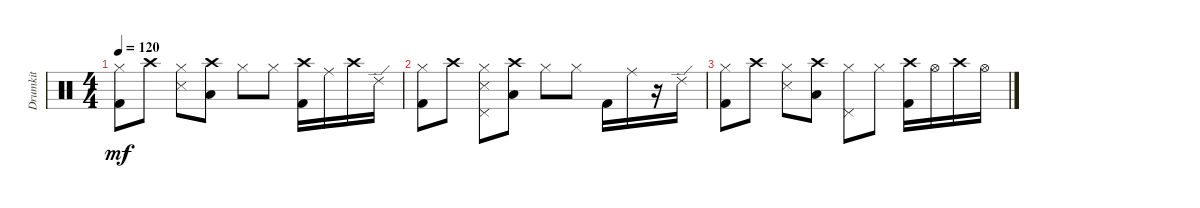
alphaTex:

\track ("Drumkit" "Drumkit") {instrument percussion}
\staff {score}
\articulation defaults
\ts (4 4)
\tempo 120
\clef neutral
\ks c
("Hi-Hat (closed)" "Kick (hit) 2").8{dy mf} "Crash high (hit)".8 ("Hi-Hat (closed)" "Snare (side stick) 3").8 ("Crash high (hit)" "Low Floor Tom (hit)").8 "Hi-Hat (closed)".8 "Hi-Hat (closed)".8 ("Crash high (hit)" "Kick (hit) 2").16 "Ride (middle)".16 "Crash high (hit)".16 "Ride (edge) 2".16 |
("Hi-Hat (closed)" "Kick (hit) 2").8 "Crash high (hit)".8 ("Hi-Hat (closed)" "Snare (side stick) 3" "Pedal Hi-Hat (hit)").8 ("Crash high (hit)" "Low Floor Tom (hit)").8 "Hi-Hat (closed)".8 "Hi-Hat (closed)".8 "Kick (hit) 2".16 "Ride (middle)".16 r.16 "Ride (edge) 2".16 |
("Hi-Hat (closed)" "Kick (hit) 2").8 "Crash high (hit)".8 ("Hi-Hat (closed)" "Snare (side stick) 3").8 ("Crash high (hit)" "Low Floor Tom (hit)").8 ("Hi-Hat (closed)" "Pedal Hi-Hat (hit)").8 "Hi-Hat (closed)".8 ("Crash high (hit)" "Kick (hit) 2").16 "Hi-Hat (open)".16 "Crash high (hit)".16 "Hi-Hat (open)".16
